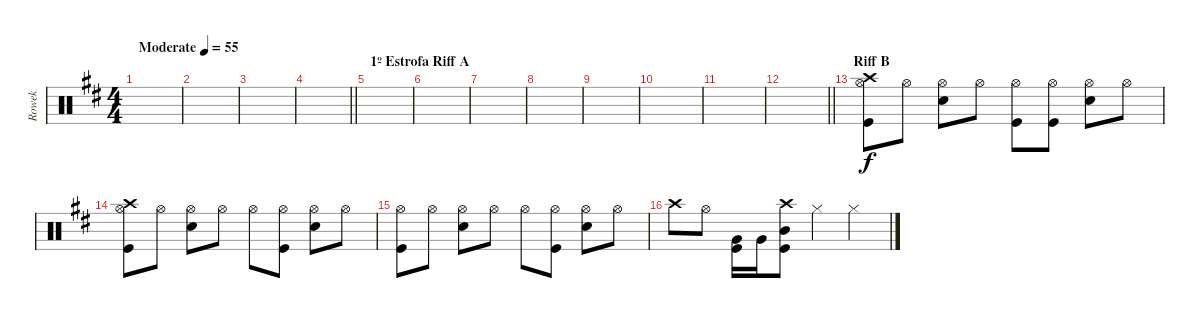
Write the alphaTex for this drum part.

\track ("Rowek" "Rowek") {instrument percussion}
\staff {score}
\articulation defaults
\ts (4 4)
\tempo (55 "Moderate")
\clef neutral
\ks d
|
|
|
\barLineRight lightlight
|
\section ("" "1º Estrofa Riff A")
|
|
|
|
|
|
|
\barLineRight lightlight
|
\section ("" "Riff B")
("Hi-Hat (open)" "Crash high (hit)" "Kick (hit)").8 "Hi-Hat (open)".8 ("Hi-Hat (open)" "Snare (hit) 2").8 "Hi-Hat (open)".8 ("Hi-Hat (open)" "Kick (hit)").8 ("Hi-Hat (open)" "Kick (hit)").8 ("Hi-Hat (open)" "Snare (hit) 2").8 "Hi-Hat (open)".8 |
("Hi-Hat (open)" "Crash high (hit)" "Kick (hit)").8 "Hi-Hat (open)".8 ("Hi-Hat (open)" "Snare (hit) 2").8 "Hi-Hat (open)".8 "Hi-Hat (open)".8 ("Hi-Hat (open)" "Kick (hit)").8 ("Hi-Hat (open)" "Snare (hit) 2").8 "Hi-Hat (open)".8 |
("Hi-Hat (open)" "Kick (hit)").8 "Hi-Hat (open)".8 ("Hi-Hat (open)" "Snare (hit) 2").8 "Hi-Hat (open)".8 "Hi-Hat (open)".8 ("Hi-Hat (open)" "Kick (hit)").8 ("Hi-Hat (open)" "Snare (hit) 2").8 "Hi-Hat (open)".8 |
"Crash high (hit)".8 "Hi-Hat (open)".8 ("Very Low Tom (hit)" "Kick (hit)").16 "Very Low Tom (hit)".16 ("Crash high (hit)" "Mid Tom (hit)" "Kick (hit)").8 "Hi-Hat (closed)".4 "Hi-Hat (closed)".4
